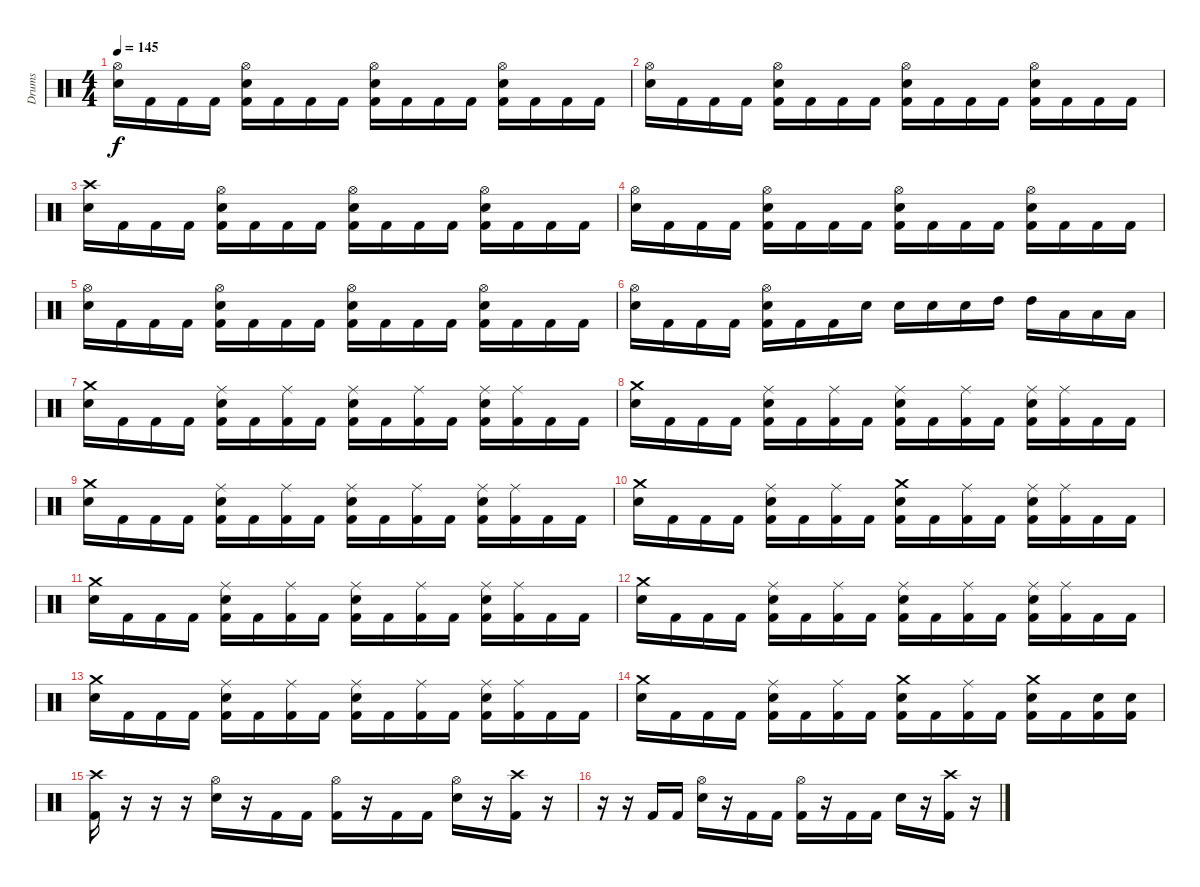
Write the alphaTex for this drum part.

\track ("Drums" "Drums") {instrument percussion}
\staff {score}
\articulation defaults
\ts (4 4)
\tempo 145
\clef neutral
\ks c
("Hi-Hat (open)" "Snare (hit) 2").16{dy f} "Kick (hit) 2".16 "Kick (hit) 2".16 "Kick (hit) 2".16 ("Hi-Hat (open)" "Snare (hit) 2" "Kick (hit) 2").16 "Kick (hit) 2".16 "Kick (hit) 2".16 "Kick (hit) 2".16 ("Hi-Hat (open)" "Snare (hit) 2" "Kick (hit) 2").16 "Kick (hit) 2".16 "Kick (hit) 2".16 "Kick (hit) 2".16 ("Hi-Hat (open)" "Snare (hit) 2" "Kick (hit) 2").16 "Kick (hit) 2".16 "Kick (hit) 2".16 "Kick (hit) 2".16 |
("Hi-Hat (open)" "Snare (hit) 2").16 "Kick (hit) 2".16 "Kick (hit) 2".16 "Kick (hit) 2".16 ("Hi-Hat (open)" "Snare (hit) 2" "Kick (hit) 2").16 "Kick (hit) 2".16 "Kick (hit) 2".16 "Kick (hit) 2".16 ("Hi-Hat (open)" "Snare (hit) 2" "Kick (hit) 2").16 "Kick (hit) 2".16 "Kick (hit) 2".16 "Kick (hit) 2".16 ("Hi-Hat (open)" "Snare (hit) 2" "Kick (hit) 2").16 "Kick (hit) 2".16 "Kick (hit) 2".16 "Kick (hit) 2".16 |
("Crash high (hit)" "Snare (hit) 2").16 "Kick (hit) 2".16 "Kick (hit) 2".16 "Kick (hit) 2".16 ("Hi-Hat (open)" "Snare (hit) 2" "Kick (hit) 2").16 "Kick (hit) 2".16 "Kick (hit) 2".16 "Kick (hit) 2".16 ("Hi-Hat (open)" "Snare (hit) 2" "Kick (hit) 2").16 "Kick (hit) 2".16 "Kick (hit) 2".16 "Kick (hit) 2".16 ("Hi-Hat (open)" "Snare (hit) 2" "Kick (hit) 2").16 "Kick (hit) 2".16 "Kick (hit) 2".16 "Kick (hit) 2".16 |
("Hi-Hat (open)" "Snare (hit) 2").16 "Kick (hit) 2".16 "Kick (hit) 2".16 "Kick (hit) 2".16 ("Hi-Hat (open)" "Snare (hit) 2" "Kick (hit) 2").16 "Kick (hit) 2".16 "Kick (hit) 2".16 "Kick (hit) 2".16 ("Hi-Hat (open)" "Snare (hit) 2" "Kick (hit) 2").16 "Kick (hit) 2".16 "Kick (hit) 2".16 "Kick (hit) 2".16 ("Hi-Hat (open)" "Snare (hit) 2" "Kick (hit) 2").16 "Kick (hit) 2".16 "Kick (hit) 2".16 "Kick (hit) 2".16 |
("Hi-Hat (open)" "Snare (hit) 2").16 "Kick (hit) 2".16 "Kick (hit) 2".16 "Kick (hit) 2".16 ("Hi-Hat (open)" "Snare (hit) 2" "Kick (hit) 2").16 "Kick (hit) 2".16 "Kick (hit) 2".16 "Kick (hit) 2".16 ("Hi-Hat (open)" "Snare (hit) 2" "Kick (hit) 2").16 "Kick (hit) 2".16 "Kick (hit) 2".16 "Kick (hit) 2".16 ("Hi-Hat (open)" "Snare (hit) 2" "Kick (hit) 2").16 "Kick (hit) 2".16 "Kick (hit) 2".16 "Kick (hit) 2".16 |
("Hi-Hat (open)" "Snare (hit) 2").16 "Kick (hit) 2".16 "Kick (hit) 2".16 "Kick (hit) 2".16 ("Hi-Hat (open)" "Snare (hit) 2" "Kick (hit) 2").16 "Kick (hit) 2".16 "Kick (hit) 2".16 "Snare (hit) 2".16 "Snare (hit) 2".16 "Snare (hit) 2".16 "Snare (hit) 2".16 "High Tom (hit)".16 "High Tom (hit)".16 "Low Tom (hit)".16 "Low Tom (hit)".16 "Low Tom (hit)".16 |
("Crash medium (hit)" "Snare (hit) 2").16 "Kick (hit) 2".16 "Kick (hit) 2".16 "Kick (hit) 2".16 ("Ride (middle)" "Snare (hit) 2" "Kick (hit) 2").16 "Kick (hit) 2".16 ("Ride (middle)" "Kick (hit) 2").16 "Kick (hit) 2".16 ("Ride (middle)" "Snare (hit) 2" "Kick (hit) 2").16 "Kick (hit) 2".16 ("Ride (middle)" "Kick (hit) 2").16 "Kick (hit) 2".16 ("Ride (middle)" "Snare (hit) 2" "Kick (hit) 2").16 ("Ride (middle)" "Kick (hit) 2").16 "Kick (hit) 2".16 "Kick (hit) 2".16 |
("Crash medium (hit)" "Snare (hit) 2").16 "Kick (hit) 2".16 "Kick (hit) 2".16 "Kick (hit) 2".16 ("Ride (middle)" "Snare (hit) 2" "Kick (hit) 2").16 "Kick (hit) 2".16 ("Ride (middle)" "Kick (hit) 2").16 "Kick (hit) 2".16 ("Ride (middle)" "Snare (hit) 2" "Kick (hit) 2").16 "Kick (hit) 2".16 ("Ride (middle)" "Kick (hit) 2").16 "Kick (hit) 2".16 ("Ride (middle)" "Snare (hit) 2" "Kick (hit) 2").16 ("Ride (middle)" "Kick (hit) 2").16 "Kick (hit) 2".16 "Kick (hit) 2".16 |
("Crash medium (hit)" "Snare (hit) 2").16 "Kick (hit) 2".16 "Kick (hit) 2".16 "Kick (hit) 2".16 ("Ride (middle)" "Snare (hit) 2" "Kick (hit) 2").16 "Kick (hit) 2".16 ("Ride (middle)" "Kick (hit) 2").16 "Kick (hit) 2".16 ("Ride (middle)" "Snare (hit) 2" "Kick (hit) 2").16 "Kick (hit) 2".16 ("Ride (middle)" "Kick (hit) 2").16 "Kick (hit) 2".16 ("Ride (middle)" "Snare (hit) 2" "Kick (hit) 2").16 ("Ride (middle)" "Kick (hit) 2").16 "Kick (hit) 2".16 "Kick (hit) 2".16 |
("Crash medium (hit)" "Snare (hit) 2").16 "Kick (hit) 2".16 "Kick (hit) 2".16 "Kick (hit) 2".16 ("Ride (middle)" "Snare (hit) 2" "Kick (hit) 2").16 "Kick (hit) 2".16 ("Ride (middle)" "Kick (hit) 2").16 "Kick (hit) 2".16 ("Crash medium (hit)" "Snare (hit) 2" "Kick (hit) 2").16 "Kick (hit) 2".16 ("Ride (middle)" "Kick (hit) 2").16 "Kick (hit) 2".16 ("Ride (middle)" "Snare (hit) 2" "Kick (hit) 2").16 ("Ride (middle)" "Kick (hit) 2").16 "Kick (hit) 2".16 "Kick (hit) 2".16 |
("Crash medium (hit)" "Snare (hit) 2").16 "Kick (hit) 2".16 "Kick (hit) 2".16 "Kick (hit) 2".16 ("Ride (middle)" "Snare (hit) 2" "Kick (hit) 2").16 "Kick (hit) 2".16 ("Ride (middle)" "Kick (hit) 2").16 "Kick (hit) 2".16 ("Ride (middle)" "Snare (hit) 2" "Kick (hit) 2").16 "Kick (hit) 2".16 ("Ride (middle)" "Kick (hit) 2").16 "Kick (hit) 2".16 ("Ride (middle)" "Snare (hit) 2" "Kick (hit) 2").16 ("Ride (middle)" "Kick (hit) 2").16 "Kick (hit) 2".16 "Kick (hit) 2".16 |
("Crash medium (hit)" "Snare (hit) 2").16 "Kick (hit) 2".16 "Kick (hit) 2".16 "Kick (hit) 2".16 ("Ride (middle)" "Snare (hit) 2" "Kick (hit) 2").16 "Kick (hit) 2".16 ("Ride (middle)" "Kick (hit) 2").16 "Kick (hit) 2".16 ("Ride (middle)" "Snare (hit) 2" "Kick (hit) 2").16 "Kick (hit) 2".16 ("Ride (middle)" "Kick (hit) 2").16 "Kick (hit) 2".16 ("Ride (middle)" "Snare (hit) 2" "Kick (hit) 2").16 ("Ride (middle)" "Kick (hit) 2").16 "Kick (hit) 2".16 "Kick (hit) 2".16 |
("Crash medium (hit)" "Snare (hit) 2").16 "Kick (hit) 2".16 "Kick (hit) 2".16 "Kick (hit) 2".16 ("Ride (middle)" "Snare (hit) 2" "Kick (hit) 2").16 "Kick (hit) 2".16 ("Ride (middle)" "Kick (hit) 2").16 "Kick (hit) 2".16 ("Ride (middle)" "Snare (hit) 2" "Kick (hit) 2").16 "Kick (hit) 2".16 ("Ride (middle)" "Kick (hit) 2").16 "Kick (hit) 2".16 ("Ride (middle)" "Snare (hit) 2" "Kick (hit) 2").16 ("Ride (middle)" "Kick (hit) 2").16 "Kick (hit) 2".16 "Kick (hit) 2".16 |
("Crash medium (hit)" "Snare (hit) 2").16 "Kick (hit) 2".16 "Kick (hit) 2".16 "Kick (hit) 2".16 ("Ride (middle)" "Snare (hit) 2" "Kick (hit) 2").16 "Kick (hit) 2".16 ("Ride (middle)" "Kick (hit) 2").16 "Kick (hit) 2".16 ("Crash medium (hit)" "Snare (hit) 2" "Kick (hit) 2").16 "Kick (hit) 2".16 ("Ride (middle)" "Kick (hit) 2").16 "Kick (hit) 2".16 ("Crash medium (hit)" "Snare (hit) 2" "Kick (hit) 2").16 "Kick (hit) 2".16 ("Snare (hit) 2" "Kick (hit) 2").16 ("Snare (hit) 2" "Kick (hit) 2").16 |
("Crash high (hit)" "Kick (hit) 2").16 r.16 r.16 r.16 ("Hi-Hat (open)" "Snare (hit) 2").16 r.16 "Kick (hit) 2".16 "Kick (hit) 2".16 ("Hi-Hat (open)" "Kick (hit) 2").16 r.16 "Kick (hit) 2".16 "Kick (hit) 2".16 ("Hi-Hat (open)" "Snare (hit) 2").16 r.16 ("Crash high (hit)" "Kick (hit) 2").16 r.16 |
r.16 r.16 "Kick (hit) 2".16 "Kick (hit) 2".16 ("Hi-Hat (open)" "Snare (hit) 2").16 r.16 "Kick (hit) 2".16 "Kick (hit) 2".16 ("Hi-Hat (open)" "Kick (hit) 2").16 r.16 "Kick (hit) 2".16 "Kick (hit) 2".16 "Snare (hit) 2".16 r.16 ("Crash high (hit)" "Kick (hit) 2").16 r.16
